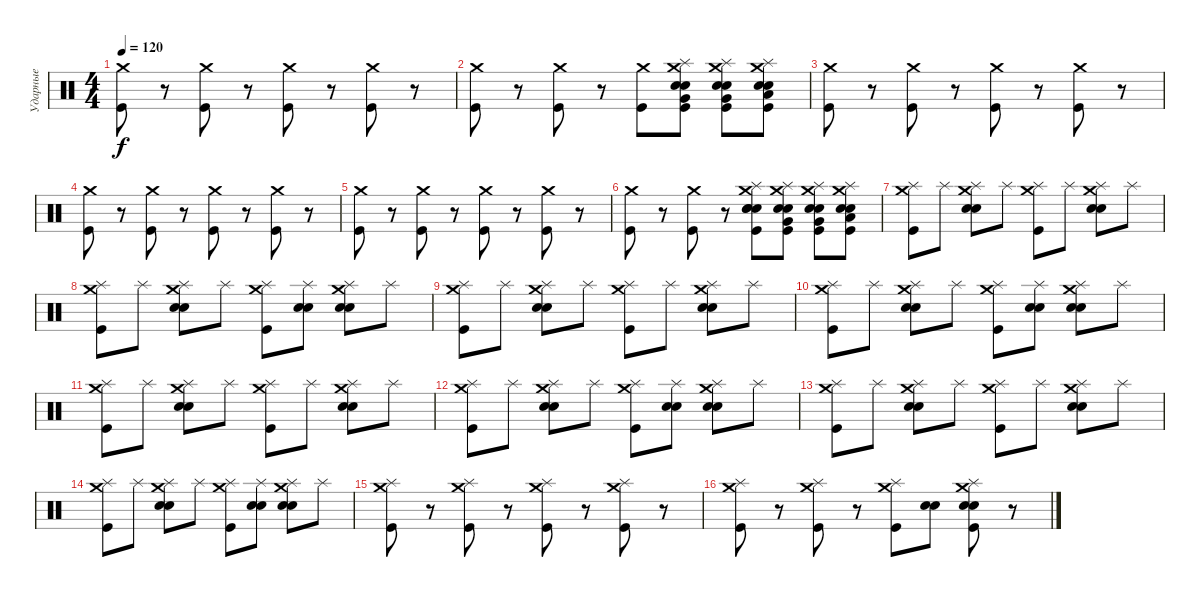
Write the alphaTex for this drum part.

\track ("Ударные" "Ударные") {instrument percussion}
\staff {score}
\articulation defaults
\ts (4 4)
\tempo 120
\clef neutral
\ks c
("Crash medium (hit)" "Kick (hit)").8{dy f} r.8 ("Crash medium (hit)" "Kick (hit)").8 r.8 ("Crash medium (hit)" "Kick (hit)").8 r.8 ("Crash medium (hit)" "Kick (hit)").8 r.8 |
("Crash medium (hit)" "Kick (hit)").8 r.8 ("Crash medium (hit)" "Kick (hit)").8 r.8 ("Crash medium (hit)" "Kick (hit)").8 ("Crash medium (hit)" "Splash (hit)" "Snare (hit) 2" "Snare (hit) 2" "Very Low Tom (hit)" "Kick (hit)").8 ("Crash medium (hit)" "Splash (hit)" "Snare (hit) 2" "Snare (hit) 2" "Very Low Tom (hit)" "Kick (hit)").8 ("Crash medium (hit)" "Splash (hit)" "Snare (hit) 2" "Snare (hit) 2" "Low Floor Tom (hit)" "Kick (hit)").8 |
("Crash medium (hit)" "Kick (hit)").8 r.8 ("Crash medium (hit)" "Kick (hit)").8 r.8 ("Crash medium (hit)" "Kick (hit)").8 r.8 ("Crash medium (hit)" "Kick (hit)").8 r.8 |
("Crash medium (hit)" "Kick (hit)").8 r.8 ("Crash medium (hit)" "Kick (hit)").8 r.8 ("Crash medium (hit)" "Kick (hit)").8 r.8 ("Crash medium (hit)" "Kick (hit)").8 r.8 |
("Crash medium (hit)" "Kick (hit)").8 r.8 ("Crash medium (hit)" "Kick (hit)").8 r.8 ("Crash medium (hit)" "Kick (hit)").8 r.8 ("Crash medium (hit)" "Kick (hit)").8 r.8 |
("Crash medium (hit)" "Kick (hit)").8 r.8 ("Crash medium (hit)" "Kick (hit)").8 r.8 ("Crash medium (hit)" "Splash (hit)" "Snare (hit) 2" "Snare (hit) 2" "Electric Snare (hit)" "Kick (hit)").8 ("Crash medium (hit)" "Splash (hit)" "Snare (hit) 2" "Snare (hit) 2" "Very Low Tom (hit)" "Kick (hit)").8 ("Crash medium (hit)" "Splash (hit)" "Snare (hit) 2" "Snare (hit) 2" "Very Low Tom (hit)" "Kick (hit)").8 ("Crash medium (hit)" "Splash (hit)" "Snare (hit) 2" "Snare (hit) 2" "Low Floor Tom (hit)" "Kick (hit)").8 |
("Crash medium (hit)" "Splash (hit)" "Kick (hit)").8 "Splash (hit)".8 ("Crash medium (hit)" "Splash (hit)" "Electric Snare (hit)" "Electric Snare (hit)").8 "Splash (hit)".8 ("Crash medium (hit)" "Splash (hit)" "Kick (hit)").8 "Splash (hit)".8 ("Crash medium (hit)" "Splash (hit)" "Electric Snare (hit)" "Electric Snare (hit)").8 "Splash (hit)".8 |
("Crash medium (hit)" "Splash (hit)" "Kick (hit)").8 "Splash (hit)".8 ("Crash medium (hit)" "Splash (hit)" "Electric Snare (hit)" "Electric Snare (hit)").8 "Splash (hit)".8 ("Crash medium (hit)" "Splash (hit)" "Kick (hit)").8 ("Splash (hit)" "Snare (hit) 2" "Snare (hit) 2").8 ("Crash medium (hit)" "Splash (hit)" "Electric Snare (hit)" "Electric Snare (hit)").8 "Splash (hit)".8 |
("Crash medium (hit)" "Splash (hit)" "Kick (hit)").8 "Splash (hit)".8 ("Crash medium (hit)" "Splash (hit)" "Electric Snare (hit)" "Electric Snare (hit)").8 "Splash (hit)".8 ("Crash medium (hit)" "Splash (hit)" "Kick (hit)").8 "Splash (hit)".8 ("Crash medium (hit)" "Splash (hit)" "Electric Snare (hit)" "Electric Snare (hit)").8 "Splash (hit)".8 |
("Crash medium (hit)" "Splash (hit)" "Kick (hit)").8 "Splash (hit)".8 ("Crash medium (hit)" "Splash (hit)" "Electric Snare (hit)" "Electric Snare (hit)").8 "Splash (hit)".8 ("Crash medium (hit)" "Splash (hit)" "Kick (hit)").8 ("Splash (hit)" "Snare (hit) 2" "Snare (hit) 2").8 ("Crash medium (hit)" "Splash (hit)" "Electric Snare (hit)" "Electric Snare (hit)").8 "Splash (hit)".8 |
("Crash medium (hit)" "Splash (hit)" "Kick (hit)").8 "Splash (hit)".8 ("Crash medium (hit)" "Splash (hit)" "Electric Snare (hit)" "Electric Snare (hit)").8 "Splash (hit)".8 ("Crash medium (hit)" "Splash (hit)" "Kick (hit)").8 "Splash (hit)".8 ("Crash medium (hit)" "Splash (hit)" "Electric Snare (hit)" "Electric Snare (hit)").8 "Splash (hit)".8 |
("Crash medium (hit)" "Splash (hit)" "Kick (hit)").8 "Splash (hit)".8 ("Crash medium (hit)" "Splash (hit)" "Electric Snare (hit)" "Electric Snare (hit)").8 "Splash (hit)".8 ("Crash medium (hit)" "Splash (hit)" "Kick (hit)").8 ("Splash (hit)" "Snare (hit) 2" "Snare (hit) 2").8 ("Crash medium (hit)" "Splash (hit)" "Electric Snare (hit)" "Electric Snare (hit)").8 "Splash (hit)".8 |
("Crash medium (hit)" "Splash (hit)" "Kick (hit)").8 "Splash (hit)".8 ("Crash medium (hit)" "Splash (hit)" "Electric Snare (hit)" "Electric Snare (hit)").8 "Splash (hit)".8 ("Crash medium (hit)" "Splash (hit)" "Kick (hit)").8 "Splash (hit)".8 ("Crash medium (hit)" "Splash (hit)" "Electric Snare (hit)" "Electric Snare (hit)").8 "Splash (hit)".8 |
("Crash medium (hit)" "Splash (hit)" "Kick (hit)").8 "Splash (hit)".8 ("Crash medium (hit)" "Splash (hit)" "Electric Snare (hit)" "Electric Snare (hit)").8 "Splash (hit)".8 ("Crash medium (hit)" "Splash (hit)" "Kick (hit)").8 ("Splash (hit)" "Snare (hit) 2" "Snare (hit) 2").8 ("Crash medium (hit)" "Splash (hit)" "Electric Snare (hit)" "Electric Snare (hit)").8 "Splash (hit)".8 |
("Crash medium (hit)" "Splash (hit)" "Kick (hit)").8 r.8 ("Crash medium (hit)" "Splash (hit)" "Kick (hit)").8 r.8 ("Crash medium (hit)" "Splash (hit)" "Kick (hit)").8 r.8 ("Crash medium (hit)" "Splash (hit)" "Kick (hit)").8 r.8 |
("Crash medium (hit)" "Splash (hit)" "Kick (hit)").8 r.8 ("Crash medium (hit)" "Splash (hit)" "Kick (hit)").8 r.8 ("Crash medium (hit)" "Splash (hit)" "Kick (hit)").8 ("Snare (hit) 2" "Snare (hit) 2").8 ("Crash medium (hit)" "Splash (hit)" "Electric Snare (hit)" "Electric Snare (hit)" "Kick (hit)").8 r.8
